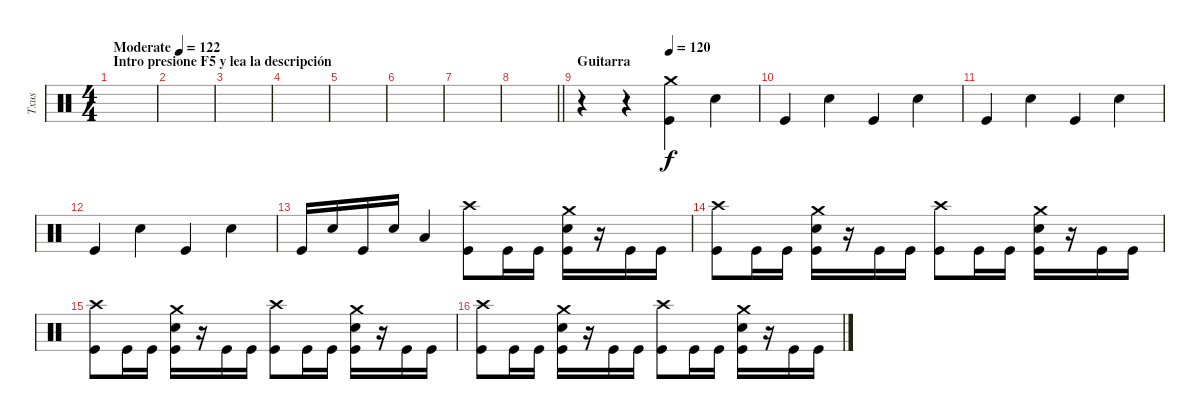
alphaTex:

\track ("Txus" "Txus") {instrument percussion}
\staff {score}
\articulation defaults
\ts (4 4)
\section ("" "Intro presione F5 y lea la descripción")
\tempo (122 "Moderate")
\clef neutral
\ks c
|
|
|
|
|
|
|
\barLineRight lightlight
|
\section ("" "Guitarra")
\tempo (120 0.5)
r.4 r.4 ("Crash medium (hit)" "Kick (hit)").4 "Electric Snare (hit)".4 |
"Kick (hit)".4 "Electric Snare (hit)".4 "Kick (hit)".4 "Electric Snare (hit)".4 |
"Kick (hit)".4 "Electric Snare (hit)".4 "Kick (hit)".4 "Electric Snare (hit)".4 |
"Kick (hit)".4 "Electric Snare (hit)".4 "Kick (hit)".4 "Electric Snare (hit)".4 |
"Kick (hit)".16 "Electric Snare (hit)".16 "Kick (hit)".16 "Electric Snare (hit)".16 "Low Tom (hit)".4 ("Kick (hit)" "Crash high (hit)").8 "Kick (hit)".16 "Kick (hit)".16 ("Kick (hit)" "Crash medium (hit)" "Electric Snare (hit)").16 r.16 "Kick (hit)".16 "Kick (hit)".16 |
("Kick (hit)" "Crash high (hit)").8 "Kick (hit)".16 "Kick (hit)".16 ("Kick (hit)" "Crash medium (hit)" "Electric Snare (hit)").16 r.16 "Kick (hit)".16 "Kick (hit)".16 ("Kick (hit)" "Crash high (hit)").8 "Kick (hit)".16 "Kick (hit)".16 ("Kick (hit)" "Crash medium (hit)" "Electric Snare (hit)").16 r.16 "Kick (hit)".16 "Kick (hit)".16 |
("Kick (hit)" "Crash high (hit)").8 "Kick (hit)".16 "Kick (hit)".16 ("Kick (hit)" "Crash medium (hit)" "Electric Snare (hit)").16 r.16 "Kick (hit)".16 "Kick (hit)".16 ("Kick (hit)" "Crash high (hit)").8 "Kick (hit)".16 "Kick (hit)".16 ("Kick (hit)" "Crash medium (hit)" "Electric Snare (hit)").16 r.16 "Kick (hit)".16 "Kick (hit)".16 |
("Kick (hit)" "Crash high (hit)").8 "Kick (hit)".16 "Kick (hit)".16 ("Kick (hit)" "Crash medium (hit)" "Electric Snare (hit)").16 r.16 "Kick (hit)".16 "Kick (hit)".16 ("Kick (hit)" "Crash high (hit)").8 "Kick (hit)".16 "Kick (hit)".16 ("Kick (hit)" "Crash medium (hit)" "Electric Snare (hit)").16 r.16 "Kick (hit)".16 "Kick (hit)".16
